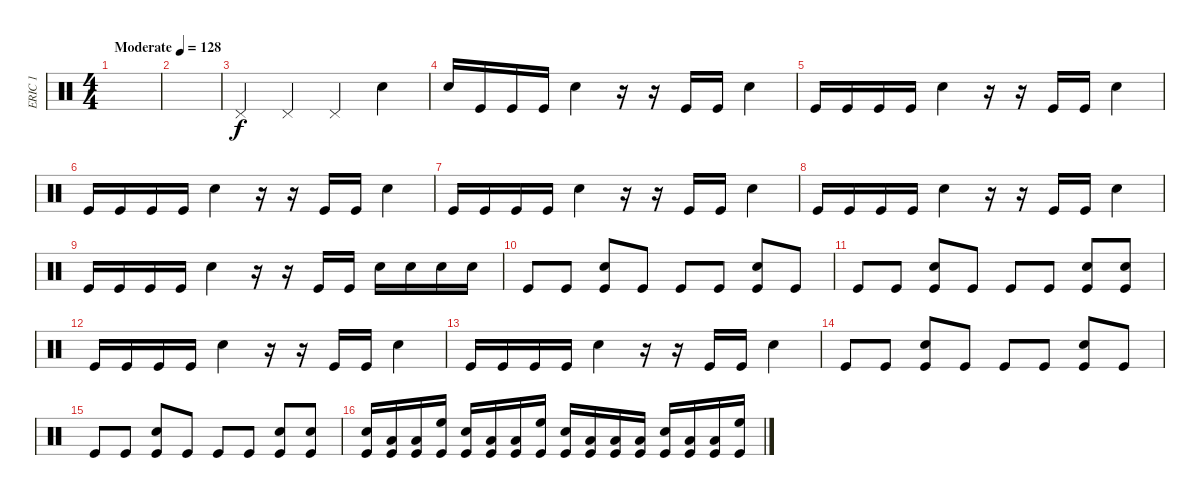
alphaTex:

\track ("ERIC 1" "ERIC 1") {instrument percussion}
\staff {score}
\articulation defaults
\ts (4 4)
\tempo (128 "Moderate")
\clef neutral
\ks c
|
|
"Pedal Hi-Hat (hit)".4 "Pedal Hi-Hat (hit)".4 "Pedal Hi-Hat (hit)".4 "Electric Snare (hit)".4 |
"Snare (hit)".16 "Kick (hit)".16 "Kick (hit)".16 "Kick (hit)".16 "Electric Snare (hit)".4 r.16 r.16 "Kick (hit)".16 "Kick (hit)".16 "Electric Snare (hit)".4 |
"Kick (hit)".16 "Kick (hit)".16 "Kick (hit)".16 "Kick (hit)".16 "Electric Snare (hit)".4 r.16 r.16 "Kick (hit)".16 "Kick (hit)".16 "Electric Snare (hit)".4 |
"Kick (hit)".16 "Kick (hit)".16 "Kick (hit)".16 "Kick (hit)".16 "Electric Snare (hit)".4 r.16 r.16 "Kick (hit)".16 "Kick (hit)".16 "Electric Snare (hit)".4 |
"Kick (hit)".16 "Kick (hit)".16 "Kick (hit)".16 "Kick (hit)".16 "Electric Snare (hit)".4 r.16 r.16 "Kick (hit)".16 "Kick (hit)".16 "Electric Snare (hit)".4 |
"Kick (hit)".16 "Kick (hit)".16 "Kick (hit)".16 "Kick (hit)".16 "Electric Snare (hit)".4 r.16 r.16 "Kick (hit)".16 "Kick (hit)".16 "Electric Snare (hit)".4 |
"Kick (hit)".16 "Kick (hit)".16 "Kick (hit)".16 "Kick (hit)".16 "Electric Snare (hit)".4 r.16 r.16 "Kick (hit)".16 "Kick (hit)".16 "Electric Snare (hit)".16 "Electric Snare (hit)".16 "Electric Snare (hit)".16 "Electric Snare (hit)".16 |
"Kick (hit)".8 "Kick (hit)".8 ("Electric Snare (hit)" "Kick (hit)").8 "Kick (hit)".8 "Kick (hit)".8 "Kick (hit)".8 ("Electric Snare (hit)" "Kick (hit)").8 "Kick (hit)".8 |
"Kick (hit)".8 "Kick (hit)".8 ("Electric Snare (hit)" "Kick (hit)").8 "Kick (hit)".8 "Kick (hit)".8 "Kick (hit)".8 ("Electric Snare (hit)" "Kick (hit)").8 ("Electric Snare (hit)" "Kick (hit)").8 |
"Kick (hit)".16 "Kick (hit)".16 "Kick (hit)".16 "Kick (hit)".16 "Electric Snare (hit)".4 r.16 r.16 "Kick (hit)".16 "Kick (hit)".16 "Electric Snare (hit)".4 |
"Kick (hit)".16 "Kick (hit)".16 "Kick (hit)".16 "Kick (hit)".16 "Electric Snare (hit)".4 r.16 r.16 "Kick (hit)".16 "Kick (hit)".16 "Electric Snare (hit)".4 |
"Kick (hit)".8 "Kick (hit)".8 ("Electric Snare (hit)" "Kick (hit)").8 "Kick (hit)".8 "Kick (hit)".8 "Kick (hit)".8 ("Electric Snare (hit)" "Kick (hit)").8 "Kick (hit)".8 |
"Kick (hit)".8 "Kick (hit)".8 ("Electric Snare (hit)" "Kick (hit)").8 "Kick (hit)".8 "Kick (hit)".8 "Kick (hit)".8 ("Electric Snare (hit)" "Kick (hit)").8 ("Electric Snare (hit)" "Kick (hit)").8 |
("Electric Snare (hit)" "Kick (hit)").16 ("Low Floor Tom (hit)" "Kick (hit)").16 ("Low Tom (hit)" "Kick (hit)").16 ("High Floor Tom (hit)" "Kick (hit)").16 ("Electric Snare (hit)" "Kick (hit)").16 ("Low Floor Tom (hit)" "Kick (hit)").16 ("Low Tom (hit)" "Kick (hit)").16 ("High Floor Tom (hit)" "Kick (hit)").16 ("Electric Snare (hit)" "Kick (hit)").16 ("Low Floor Tom (hit)" "Kick (hit)").16 ("Low Tom (hit)" "Kick (hit)").16 ("Low Floor Tom (hit)" "Kick (hit)").16 ("Electric Snare (hit)" "Kick (hit)").16 ("Low Floor Tom (hit)" "Kick (hit)").16 ("Low Tom (hit)" "Kick (hit)").16 ("High Floor Tom (hit)" "Kick (hit)").16
